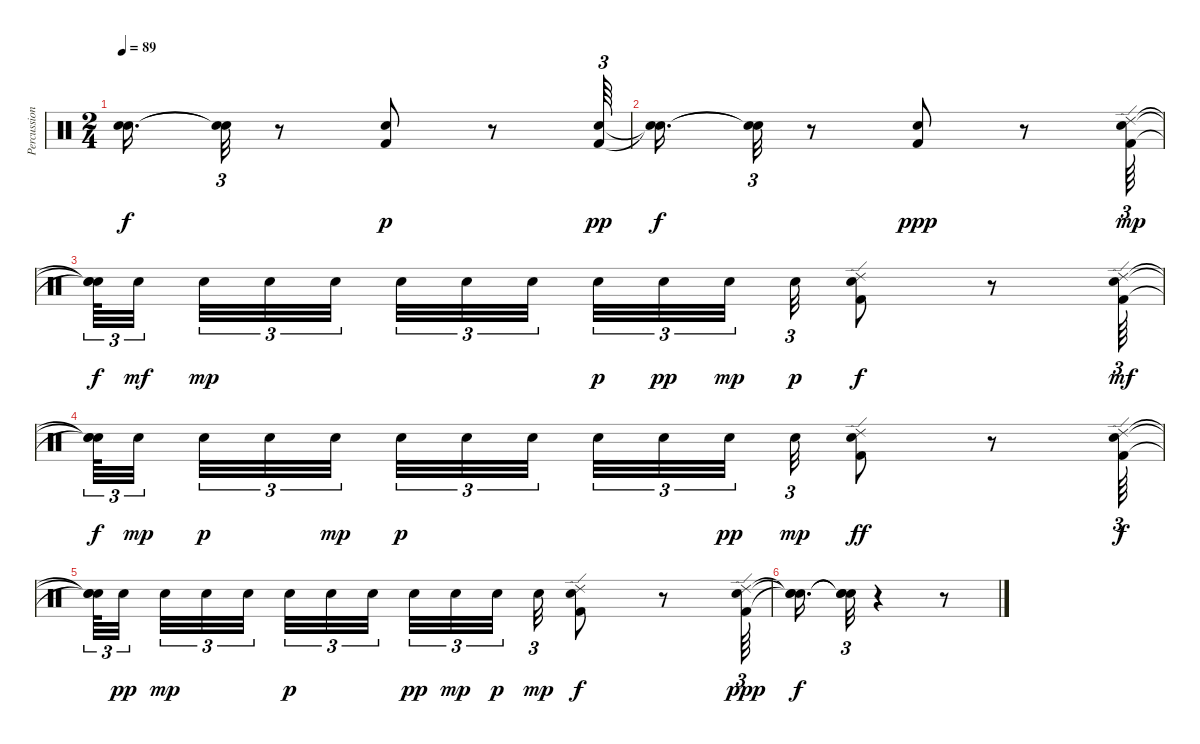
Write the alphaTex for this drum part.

\track ("Percussion" "Percussion") {instrument percussion}
\staff {score}
\articulation defaults
\ts (2 4)
\tempo 89
\clef neutral
\ks c
("Snare (hit)"{t} "Snare (hit)"{t}).16{d dy f} ("Snare (hit)"{t} "Snare (hit)"{t}).32{tu (3 2)} r.8 ("Kick (hit) 2" "Snare (hit) 2").8{dy p} r.8 ("Kick (hit) 2" "Snare (hit) 2").64{tu (3 2) dy pp} |
("Snare (hit)"{t} "Snare (hit)"{t}).16{d dy f} ("Snare (hit)"{t} "Snare (hit)"{t}).32{tu (3 2)} r.8 ("Kick (hit) 2" "Snare (hit) 2").8{dy ppp} r.8 ("Ride (edge) 2" "Kick (hit) 2" "Snare (hit) 2").64{tu (3 2) dy mp} |
("Snare (hit)"{t} "Snare (hit)"{t} "Snare (hit)"{t}).64{tu (3 2) dy f} "Snare (hit) 2".32{tu (3 2) dy mf beam splitsecondary} "Snare (hit) 2".32{tu (3 2) dy mp} "Snare (hit) 2".32{tu (3 2)} "Snare (hit) 2".32{tu (3 2) beam splitsecondary} "Snare (hit) 2".32{tu (3 2)} "Snare (hit) 2".32{tu (3 2)} "Snare (hit) 2".32{tu (3 2) beam splitsecondary} "Snare (hit) 2".32{tu (3 2) dy p} "Snare (hit) 2".32{tu (3 2) dy pp} "Snare (hit) 2".32{tu (3 2) dy mp beam splitsecondary} "Snare (hit) 2".32{tu (3 2) dy p} ("Kick (hit) 2" "Ride (edge) 2" "Snare (hit) 2").8{dy f} r.8 ("Ride (edge) 2" "Kick (hit) 2" "Snare (hit) 2").64{tu (3 2) dy mf} |
("Snare (hit)"{t} "Snare (hit)"{t} "Snare (hit)"{t}).64{tu (3 2) dy f} "Snare (hit) 2".32{tu (3 2) dy mp beam splitsecondary} "Snare (hit) 2".32{tu (3 2) dy p} "Snare (hit) 2".32{tu (3 2)} "Snare (hit) 2".32{tu (3 2) dy mp beam splitsecondary} "Snare (hit) 2".32{tu (3 2) dy p} "Snare (hit) 2".32{tu (3 2)} "Snare (hit) 2".32{tu (3 2) beam splitsecondary} "Snare (hit) 2".32{tu (3 2)} "Snare (hit) 2".32{tu (3 2)} "Snare (hit) 2".32{tu (3 2) dy pp beam splitsecondary} "Snare (hit) 2".32{tu (3 2) dy mp} ("Kick (hit) 2" "Ride (edge) 2" "Snare (hit) 2").8{dy ff} r.8 ("Ride (edge) 2" "Kick (hit) 2" "Snare (hit) 2").64{tu (3 2) dy f} |
("Snare (hit)"{t} "Snare (hit)"{t} "Snare (hit)"{t}).64{tu (3 2)} "Snare (hit) 2".32{tu (3 2) dy pp beam splitsecondary} "Snare (hit) 2".32{tu (3 2) dy mp} "Snare (hit) 2".32{tu (3 2)} "Snare (hit) 2".32{tu (3 2) beam splitsecondary} "Snare (hit) 2".32{tu (3 2) dy p} "Snare (hit) 2".32{tu (3 2)} "Snare (hit) 2".32{tu (3 2) beam splitsecondary} "Snare (hit) 2".32{tu (3 2) dy pp} "Snare (hit) 2".32{tu (3 2) dy mp} "Snare (hit) 2".32{tu (3 2) dy p beam splitsecondary} "Snare (hit) 2".32{tu (3 2) dy mp} ("Kick (hit) 2" "Ride (edge) 2" "Snare (hit) 2").8{dy f} r.8 ("Kick (hit) 2" "Ride (edge) 2" "Snare (hit) 2").64{tu (3 2) dy ppp} |
("Snare (hit)"{t} "Snare (hit)"{t} "Snare (hit)"{t}).16{d dy f} ("Snare (hit)"{t} "Snare (hit)"{t} "Snare (hit)"{t}).32{tu (3 2)} r.4 r.8
